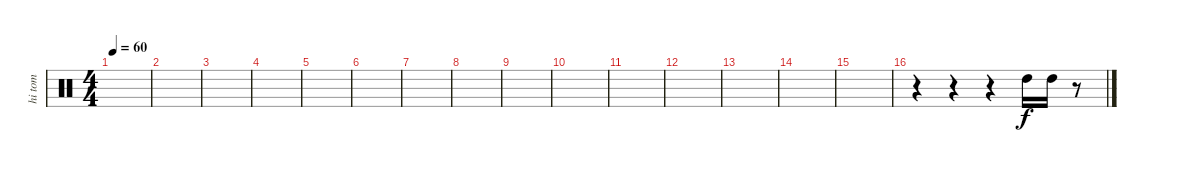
\track ("hi tom" "hi tom") {instrument percussion}
\staff {score}
\articulation defaults
\ts (4 4)
\tempo 60
\clef neutral
\ks c
|
|
|
|
|
|
|
|
|
|
|
|
|
|
|
r.4 r.4 r.4 "High Tom (hit)".16 "High Tom (hit)".16 r.8
